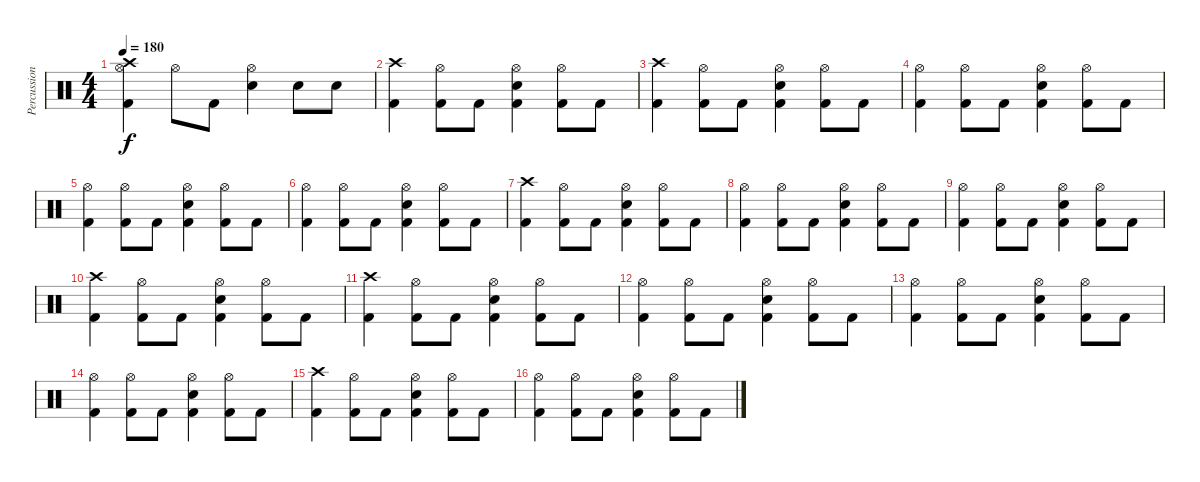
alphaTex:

\track ("Percussion" "Percussion") {instrument percussion}
\staff {score}
\articulation defaults
\ts (4 4)
\tempo 180
\clef neutral
\ks c
("Hi-Hat (open)" "Kick (hit) 2" "Crash high (hit)").4{dy f} "Hi-Hat (open)".8 "Kick (hit) 2".8 ("Hi-Hat (open)" "Electric Snare (hit)").4 "Electric Snare (hit)".8 "Electric Snare (hit)".8 |
("Kick (hit) 2" "Crash high (hit)").4 ("Kick (hit) 2" "Hi-Hat (open)").8 "Kick (hit) 2".8 ("Kick (hit) 2" "Hi-Hat (open)" "Electric Snare (hit)").4 ("Kick (hit) 2" "Hi-Hat (open)").8 "Kick (hit) 2".8 |
("Kick (hit) 2" "Crash high (hit)").4 ("Kick (hit) 2" "Hi-Hat (open)").8 "Kick (hit) 2".8 ("Kick (hit) 2" "Hi-Hat (open)" "Electric Snare (hit)").4 ("Kick (hit) 2" "Hi-Hat (open)").8 "Kick (hit) 2".8 |
("Kick (hit) 2" "Hi-Hat (open)").4 ("Kick (hit) 2" "Hi-Hat (open)").8 "Kick (hit) 2".8 ("Kick (hit) 2" "Hi-Hat (open)" "Electric Snare (hit)").4 ("Kick (hit) 2" "Hi-Hat (open)").8 "Kick (hit) 2".8 |
("Kick (hit) 2" "Hi-Hat (open)").4 ("Kick (hit) 2" "Hi-Hat (open)").8 "Kick (hit) 2".8 ("Kick (hit) 2" "Hi-Hat (open)" "Electric Snare (hit)").4 ("Kick (hit) 2" "Hi-Hat (open)").8 "Kick (hit) 2".8 |
("Kick (hit) 2" "Hi-Hat (open)").4 ("Kick (hit) 2" "Hi-Hat (open)").8 "Kick (hit) 2".8 ("Kick (hit) 2" "Hi-Hat (open)" "Electric Snare (hit)").4 ("Kick (hit) 2" "Hi-Hat (open)").8 "Kick (hit) 2".8 |
("Kick (hit) 2" "Crash high (hit)").4 ("Kick (hit) 2" "Hi-Hat (open)").8 "Kick (hit) 2".8 ("Kick (hit) 2" "Hi-Hat (open)" "Electric Snare (hit)").4 ("Kick (hit) 2" "Hi-Hat (open)").8 "Kick (hit) 2".8 |
("Kick (hit) 2" "Hi-Hat (open)").4 ("Kick (hit) 2" "Hi-Hat (open)").8 "Kick (hit) 2".8 ("Kick (hit) 2" "Hi-Hat (open)" "Electric Snare (hit)").4 ("Kick (hit) 2" "Hi-Hat (open)").8 "Kick (hit) 2".8 |
("Kick (hit) 2" "Hi-Hat (open)").4 ("Kick (hit) 2" "Hi-Hat (open)").8 "Kick (hit) 2".8 ("Kick (hit) 2" "Hi-Hat (open)" "Electric Snare (hit)").4 ("Kick (hit) 2" "Hi-Hat (open)").8 "Kick (hit) 2".8 |
("Kick (hit) 2" "Crash high (hit)").4 ("Kick (hit) 2" "Hi-Hat (open)").8 "Kick (hit) 2".8 ("Kick (hit) 2" "Hi-Hat (open)" "Electric Snare (hit)").4 ("Kick (hit) 2" "Hi-Hat (open)").8 "Kick (hit) 2".8 |
("Kick (hit) 2" "Crash high (hit)").4 ("Kick (hit) 2" "Hi-Hat (open)").8 "Kick (hit) 2".8 ("Kick (hit) 2" "Hi-Hat (open)" "Electric Snare (hit)").4 ("Kick (hit) 2" "Hi-Hat (open)").8 "Kick (hit) 2".8 |
("Kick (hit) 2" "Hi-Hat (open)").4 ("Kick (hit) 2" "Hi-Hat (open)").8 "Kick (hit) 2".8 ("Kick (hit) 2" "Hi-Hat (open)" "Electric Snare (hit)").4 ("Kick (hit) 2" "Hi-Hat (open)").8 "Kick (hit) 2".8 |
("Kick (hit) 2" "Hi-Hat (open)").4 ("Kick (hit) 2" "Hi-Hat (open)").8 "Kick (hit) 2".8 ("Kick (hit) 2" "Hi-Hat (open)" "Electric Snare (hit)").4 ("Kick (hit) 2" "Hi-Hat (open)").8 "Kick (hit) 2".8 |
("Kick (hit) 2" "Hi-Hat (open)").4 ("Kick (hit) 2" "Hi-Hat (open)").8 "Kick (hit) 2".8 ("Kick (hit) 2" "Hi-Hat (open)" "Electric Snare (hit)").4 ("Kick (hit) 2" "Hi-Hat (open)").8 "Kick (hit) 2".8 |
("Kick (hit) 2" "Crash high (hit)").4 ("Kick (hit) 2" "Hi-Hat (open)").8 "Kick (hit) 2".8 ("Kick (hit) 2" "Hi-Hat (open)" "Electric Snare (hit)").4 ("Kick (hit) 2" "Hi-Hat (open)").8 "Kick (hit) 2".8 |
("Kick (hit) 2" "Hi-Hat (open)").4 ("Kick (hit) 2" "Hi-Hat (open)").8 "Kick (hit) 2".8 ("Kick (hit) 2" "Hi-Hat (open)" "Electric Snare (hit)").4 ("Kick (hit) 2" "Hi-Hat (open)").8 "Kick (hit) 2".8
